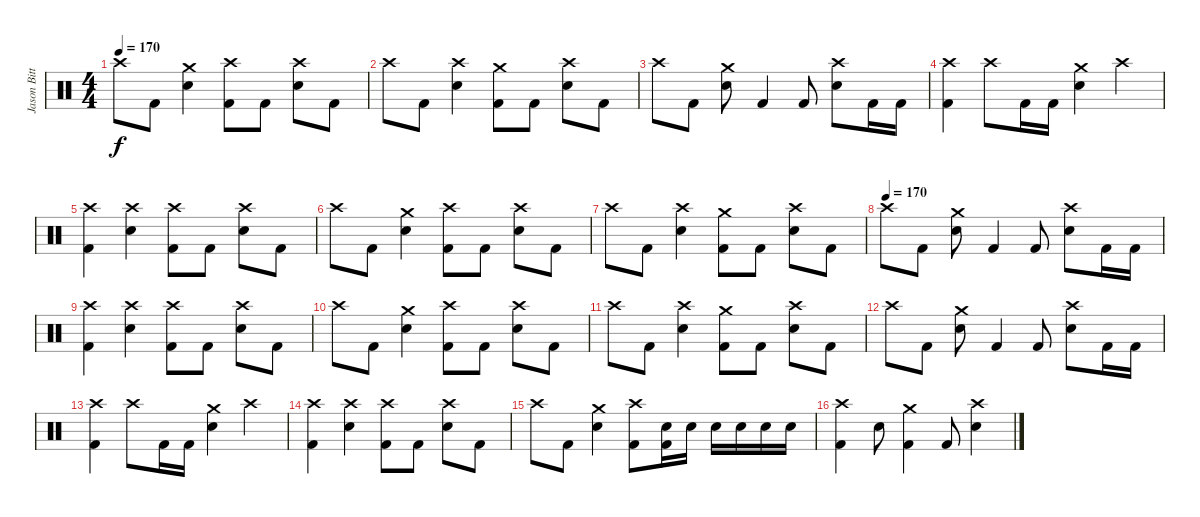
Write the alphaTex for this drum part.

\track ("Jason Bittner" "Jason Bitt") {instrument percussion}
\staff {score}
\articulation defaults
\ts (4 4)
\tempo 170
\clef neutral
\ks c "Crash high (hit)".8{dy f} "Kick (hit) 2".8
("Crash medium (hit)" "Electric Snare (hit)").4 ("Crash high (hit)" "Kick (hit) 2").8 "Kick (hit) 2".8 ("Crash high (hit)" "Electric Snare (hit)").8 "Kick (hit) 2".8 |
"Crash high (hit)".8 "Kick (hit) 2".8 ("Crash high (hit)" "Electric Snare (hit)").4 ("Crash medium (hit)" "Kick (hit) 2").8 "Kick (hit) 2".8 ("Crash high (hit)" "Electric Snare (hit)").8 "Kick (hit) 2".8 |
"Crash high (hit)".8 "Kick (hit) 2".8 ("Crash medium (hit)" "Electric Snare (hit)").8 "Kick (hit) 2".4 "Kick (hit) 2".8 ("Crash high (hit)" "Electric Snare (hit)").8 "Kick (hit) 2".16 "Kick (hit) 2".16 |
("Crash high (hit)" "Kick (hit) 2").4 "Crash high (hit)".8 "Kick (hit) 2".16 "Kick (hit) 2".16 ("Crash medium (hit)" "Electric Snare (hit)").4 "Crash high (hit)".4 |
("Crash high (hit)" "Kick (hit) 2").4 ("Crash high (hit)" "Electric Snare (hit)").4 ("Crash high (hit)" "Kick (hit) 2").8 "Kick (hit) 2".8 ("Crash high (hit)" "Electric Snare (hit)").8 "Kick (hit) 2".8 |
"Crash high (hit)".8 "Kick (hit) 2".8 ("Crash medium (hit)" "Electric Snare (hit)").4 ("Crash high (hit)" "Kick (hit) 2").8 "Kick (hit) 2".8 ("Crash high (hit)" "Electric Snare (hit)").8 "Kick (hit) 2".8 |
"Crash high (hit)".8 "Kick (hit) 2".8 ("Crash high (hit)" "Electric Snare (hit)").4 ("Crash medium (hit)" "Kick (hit) 2").8 "Kick (hit) 2".8 ("Crash high (hit)" "Electric Snare (hit)").8 "Kick (hit) 2".8 |
\tempo (170)
"Crash high (hit)".8 "Kick (hit) 2".8 ("Crash medium (hit)" "Electric Snare (hit)").8 "Kick (hit) 2".4 "Kick (hit) 2".8 ("Crash high (hit)" "Electric Snare (hit)").8 "Kick (hit) 2".16 "Kick (hit) 2".16 |
("Crash high (hit)" "Kick (hit) 2").4 ("Crash high (hit)" "Electric Snare (hit)").4 ("Crash high (hit)" "Kick (hit) 2").8 "Kick (hit) 2".8 ("Crash high (hit)" "Electric Snare (hit)").8 "Kick (hit) 2".8 |
"Crash high (hit)".8 "Kick (hit) 2".8 ("Crash medium (hit)" "Electric Snare (hit)").4 ("Crash high (hit)" "Kick (hit) 2").8 "Kick (hit) 2".8 ("Crash high (hit)" "Electric Snare (hit)").8 "Kick (hit) 2".8 |
"Crash high (hit)".8 "Kick (hit) 2".8 ("Crash high (hit)" "Electric Snare (hit)").4 ("Crash medium (hit)" "Kick (hit) 2").8 "Kick (hit) 2".8 ("Crash high (hit)" "Electric Snare (hit)").8 "Kick (hit) 2".8 |
"Crash high (hit)".8 "Kick (hit) 2".8 ("Crash medium (hit)" "Electric Snare (hit)").8 "Kick (hit) 2".4 "Kick (hit) 2".8 ("Crash high (hit)" "Electric Snare (hit)").8 "Kick (hit) 2".16 "Kick (hit) 2".16 |
("Crash high (hit)" "Kick (hit) 2").4 "Crash high (hit)".8 "Kick (hit) 2".16 "Kick (hit) 2".16 ("Crash medium (hit)" "Electric Snare (hit)").4 "Crash high (hit)".4 |
("Crash high (hit)" "Kick (hit) 2").4 ("Crash high (hit)" "Electric Snare (hit)").4 ("Crash high (hit)" "Kick (hit) 2").8 "Kick (hit) 2".8 ("Crash high (hit)" "Electric Snare (hit)").8 "Kick (hit) 2".8 |
"Crash high (hit)".8 "Kick (hit) 2".8 ("Crash medium (hit)" "Electric Snare (hit)").4 ("Crash high (hit)" "Kick (hit) 2").8 ("Electric Snare (hit)" "Kick (hit) 2").16 "Electric Snare (hit)".16 "Electric Snare (hit)".16 "Electric Snare (hit)".16 "Electric Snare (hit)".16 "Electric Snare (hit)".16 |
("Crash high (hit)" "Kick (hit) 2").4 "Electric Snare (hit)".8 ("Crash medium (hit)" "Kick (hit) 2").4 "Kick (hit) 2".8 ("Crash high (hit)" "Electric Snare (hit)").4
